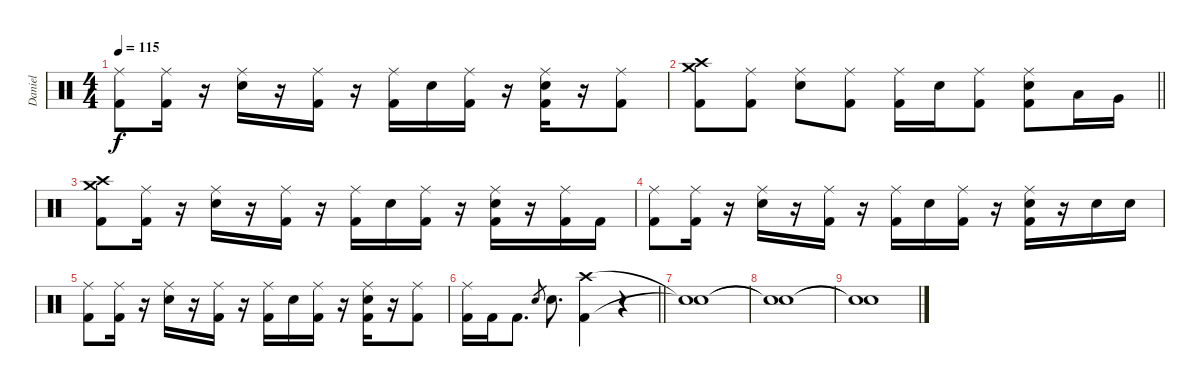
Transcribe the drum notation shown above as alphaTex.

\track ("Daniel" "Daniel") {instrument percussion}
\staff {score}
\articulation defaults
\ts (4 4)
\tempo 115
\clef neutral
\ks c
("Ride (middle)" "Kick (hit) 2").8{dy f} ("Ride (middle)" "Kick (hit) 2").16 r.16 ("Ride (middle)" "Snare (hit) 2").16 r.16 ("Ride (middle)" "Kick (hit) 2").16 r.16 ("Ride (middle)" "Kick (hit) 2").16 "Snare (hit) 2".16 ("Ride (middle)" "Kick (hit) 2").16 r.16 ("Ride (middle)" "Snare (hit) 2" "Kick (hit) 2").16 r.16 ("Ride (middle)" "Kick (hit) 2").8 |
\barLineRight lightlight
("Crash high (hit)" "Crash medium (hit)" "Kick (hit) 2").8 ("Ride (middle)" "Kick (hit) 2").8 ("Ride (middle)" "Snare (hit) 2").8 ("Ride (middle)" "Kick (hit) 2").8 ("Ride (middle)" "Kick (hit) 2").16 "Snare (hit) 2".16 ("Ride (middle)" "Kick (hit) 2").8 ("Ride (middle)" "Snare (hit) 2" "Kick (hit) 2").8 "Low Tom (hit)".16 "Very Low Tom (hit)".16 |
("Crash high (hit)" "Crash medium (hit)" "Kick (hit) 2").8 ("Ride (middle)" "Kick (hit) 2").16 r.16 ("Ride (middle)" "Snare (hit) 2").16 r.16 ("Ride (middle)" "Kick (hit) 2").16 r.16 ("Ride (middle)" "Kick (hit) 2").16 "Snare (hit) 2".16 ("Ride (middle)" "Kick (hit) 2").16 r.16 ("Ride (middle)" "Snare (hit) 2" "Kick (hit) 2").16 r.16 ("Ride (middle)" "Kick (hit) 2").16 "Kick (hit) 2".16 |
("Ride (middle)" "Kick (hit) 2").8 ("Ride (middle)" "Kick (hit) 2").16 r.16 ("Ride (middle)" "Snare (hit) 2").16 r.16 ("Ride (middle)" "Kick (hit) 2").16 r.16 ("Ride (middle)" "Kick (hit) 2").16 "Snare (hit) 2".16 ("Ride (middle)" "Kick (hit) 2").16 r.16 ("Ride (middle)" "Snare (hit) 2" "Kick (hit) 2").16 r.16 "Snare (hit) 2".16 "Snare (hit) 2".16 |
("Ride (middle)" "Kick (hit) 2").8 ("Ride (middle)" "Kick (hit) 2").16 r.16 ("Ride (middle)" "Snare (hit) 2").16 r.16 ("Ride (middle)" "Kick (hit) 2").16 r.16 ("Ride (middle)" "Kick (hit) 2").16 "Snare (hit) 2".16 ("Ride (middle)" "Kick (hit) 2").16 r.16 ("Ride (middle)" "Snare (hit) 2" "Kick (hit) 2").16 r.16 ("Ride (middle)" "Kick (hit) 2").8 |
\barLineRight lightlight
("Ride (middle)" "Kick (hit) 2").16 "Kick (hit) 2".16 "Kick (hit) 2".8{d} "Snare (hit) 2".8{gr} "Snare (hit) 2".8{d} ("Crash high (hit)" "Kick (hit) 2").4 r.4 |
("Snare (hit)"{t} "Snare (hit)"{t}).1 |
("Snare (hit)"{t} "Snare (hit)"{t}).1 |
("Snare (hit)"{t} "Snare (hit)"{t}).1
